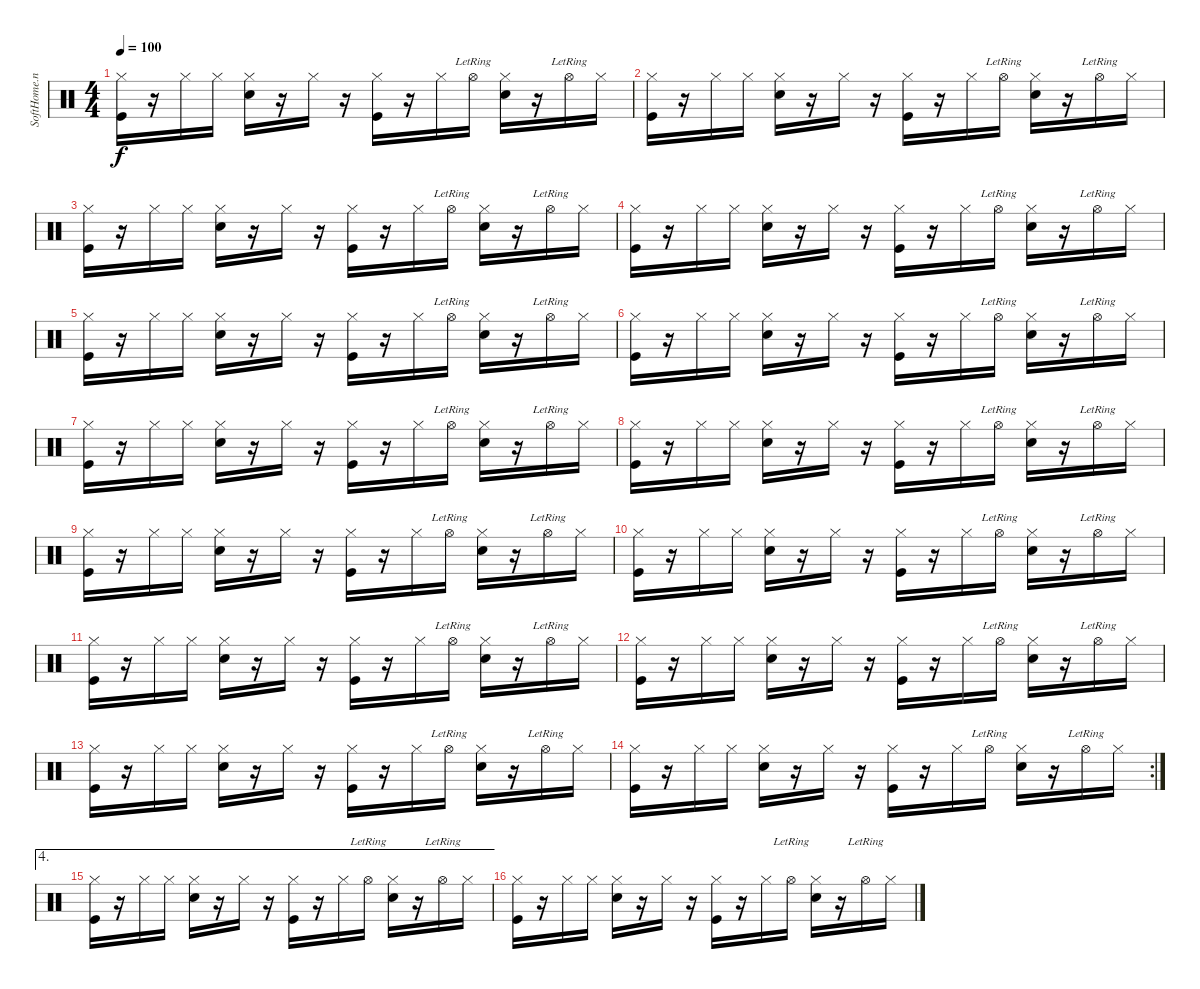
\track ("SoftHome.net" "SoftHome.n") {instrument percussion}
\staff {score}
\articulation defaults
\ts (4 4)
\tempo 100
\clef neutral
\ks c
("Hi-Hat (closed)" "Kick (hit)").16{dy f} r.16 "Hi-Hat (closed)".16 "Hi-Hat (closed)".16 ("Hi-Hat (closed)" "Snare (hit) 2").16 r.16 "Hi-Hat (closed)".16 r.16 ("Hi-Hat (closed)" "Kick (hit)").16 r.16 "Hi-Hat (closed)".16 "Hi-Hat (open)"{lr}.16 ("Hi-Hat (closed)" "Snare (hit) 2").16 r.16 "Hi-Hat (open)"{lr}.16 "Hi-Hat (closed)".16 |
("Hi-Hat (closed)" "Kick (hit)").16 r.16 "Hi-Hat (closed)".16 "Hi-Hat (closed)".16 ("Hi-Hat (closed)" "Snare (hit) 2").16 r.16 "Hi-Hat (closed)".16 r.16 ("Hi-Hat (closed)" "Kick (hit)").16 r.16 "Hi-Hat (closed)".16 "Hi-Hat (open)"{lr}.16 ("Hi-Hat (closed)" "Snare (hit) 2").16 r.16 "Hi-Hat (open)"{lr}.16 "Hi-Hat (closed)".16 |
("Hi-Hat (closed)" "Kick (hit)").16 r.16 "Hi-Hat (closed)".16 "Hi-Hat (closed)".16 ("Hi-Hat (closed)" "Snare (hit) 2").16 r.16 "Hi-Hat (closed)".16 r.16 ("Hi-Hat (closed)" "Kick (hit)").16 r.16 "Hi-Hat (closed)".16 "Hi-Hat (open)"{lr}.16 ("Hi-Hat (closed)" "Snare (hit) 2").16 r.16 "Hi-Hat (open)"{lr}.16 "Hi-Hat (closed)".16 |
("Hi-Hat (closed)" "Kick (hit)").16 r.16 "Hi-Hat (closed)".16 "Hi-Hat (closed)".16 ("Hi-Hat (closed)" "Snare (hit) 2").16 r.16 "Hi-Hat (closed)".16 r.16 ("Hi-Hat (closed)" "Kick (hit)").16 r.16 "Hi-Hat (closed)".16 "Hi-Hat (open)"{lr}.16 ("Hi-Hat (closed)" "Snare (hit) 2").16 r.16 "Hi-Hat (open)"{lr}.16 "Hi-Hat (closed)".16 |
("Hi-Hat (closed)" "Kick (hit)").16 r.16 "Hi-Hat (closed)".16 "Hi-Hat (closed)".16 ("Hi-Hat (closed)" "Snare (hit) 2").16 r.16 "Hi-Hat (closed)".16 r.16 ("Hi-Hat (closed)" "Kick (hit)").16 r.16 "Hi-Hat (closed)".16 "Hi-Hat (open)"{lr}.16 ("Hi-Hat (closed)" "Snare (hit) 2").16 r.16 "Hi-Hat (open)"{lr}.16 "Hi-Hat (closed)".16 |
("Hi-Hat (closed)" "Kick (hit)").16 r.16 "Hi-Hat (closed)".16 "Hi-Hat (closed)".16 ("Hi-Hat (closed)" "Snare (hit) 2").16 r.16 "Hi-Hat (closed)".16 r.16 ("Hi-Hat (closed)" "Kick (hit)").16 r.16 "Hi-Hat (closed)".16 "Hi-Hat (open)"{lr}.16 ("Hi-Hat (closed)" "Snare (hit) 2").16 r.16 "Hi-Hat (open)"{lr}.16 "Hi-Hat (closed)".16 |
("Hi-Hat (closed)" "Kick (hit)").16 r.16 "Hi-Hat (closed)".16 "Hi-Hat (closed)".16 ("Hi-Hat (closed)" "Snare (hit) 2").16 r.16 "Hi-Hat (closed)".16 r.16 ("Hi-Hat (closed)" "Kick (hit)").16 r.16 "Hi-Hat (closed)".16 "Hi-Hat (open)"{lr}.16 ("Hi-Hat (closed)" "Snare (hit) 2").16 r.16 "Hi-Hat (open)"{lr}.16 "Hi-Hat (closed)".16 |
("Hi-Hat (closed)" "Kick (hit)").16 r.16 "Hi-Hat (closed)".16 "Hi-Hat (closed)".16 ("Hi-Hat (closed)" "Snare (hit) 2").16 r.16 "Hi-Hat (closed)".16 r.16 ("Hi-Hat (closed)" "Kick (hit)").16 r.16 "Hi-Hat (closed)".16 "Hi-Hat (open)"{lr}.16 ("Hi-Hat (closed)" "Snare (hit) 2").16 r.16 "Hi-Hat (open)"{lr}.16 "Hi-Hat (closed)".16 |
("Hi-Hat (closed)" "Kick (hit)").16 r.16 "Hi-Hat (closed)".16 "Hi-Hat (closed)".16 ("Hi-Hat (closed)" "Snare (hit) 2").16 r.16 "Hi-Hat (closed)".16 r.16 ("Hi-Hat (closed)" "Kick (hit)").16 r.16 "Hi-Hat (closed)".16 "Hi-Hat (open)"{lr}.16 ("Hi-Hat (closed)" "Snare (hit) 2").16 r.16 "Hi-Hat (open)"{lr}.16 "Hi-Hat (closed)".16 |
("Hi-Hat (closed)" "Kick (hit)").16 r.16 "Hi-Hat (closed)".16 "Hi-Hat (closed)".16 ("Hi-Hat (closed)" "Snare (hit) 2").16 r.16 "Hi-Hat (closed)".16 r.16 ("Hi-Hat (closed)" "Kick (hit)").16 r.16 "Hi-Hat (closed)".16 "Hi-Hat (open)"{lr}.16 ("Hi-Hat (closed)" "Snare (hit) 2").16 r.16 "Hi-Hat (open)"{lr}.16 "Hi-Hat (closed)".16 |
("Hi-Hat (closed)" "Kick (hit)").16 r.16 "Hi-Hat (closed)".16 "Hi-Hat (closed)".16 ("Hi-Hat (closed)" "Snare (hit) 2").16 r.16 "Hi-Hat (closed)".16 r.16 ("Hi-Hat (closed)" "Kick (hit)").16 r.16 "Hi-Hat (closed)".16 "Hi-Hat (open)"{lr}.16 ("Hi-Hat (closed)" "Snare (hit) 2").16 r.16 "Hi-Hat (open)"{lr}.16 "Hi-Hat (closed)".16 |
("Hi-Hat (closed)" "Kick (hit)").16 r.16 "Hi-Hat (closed)".16 "Hi-Hat (closed)".16 ("Hi-Hat (closed)" "Snare (hit) 2").16 r.16 "Hi-Hat (closed)".16 r.16 ("Hi-Hat (closed)" "Kick (hit)").16 r.16 "Hi-Hat (closed)".16 "Hi-Hat (open)"{lr}.16 ("Hi-Hat (closed)" "Snare (hit) 2").16 r.16 "Hi-Hat (open)"{lr}.16 "Hi-Hat (closed)".16 |
("Hi-Hat (closed)" "Kick (hit)").16 r.16 "Hi-Hat (closed)".16 "Hi-Hat (closed)".16 ("Hi-Hat (closed)" "Snare (hit) 2").16 r.16 "Hi-Hat (closed)".16 r.16 ("Hi-Hat (closed)" "Kick (hit)").16 r.16 "Hi-Hat (closed)".16 "Hi-Hat (open)"{lr}.16 ("Hi-Hat (closed)" "Snare (hit) 2").16 r.16 "Hi-Hat (open)"{lr}.16 "Hi-Hat (closed)".16 |
\rc 2
("Hi-Hat (closed)" "Kick (hit)").16 r.16 "Hi-Hat (closed)".16 "Hi-Hat (closed)".16 ("Hi-Hat (closed)" "Snare (hit) 2").16 r.16 "Hi-Hat (closed)".16 r.16 ("Hi-Hat (closed)" "Kick (hit)").16 r.16 "Hi-Hat (closed)".16 "Hi-Hat (open)"{lr}.16 ("Hi-Hat (closed)" "Snare (hit) 2").16 r.16 "Hi-Hat (open)"{lr}.16 "Hi-Hat (closed)".16 |
\ae 4
("Hi-Hat (closed)" "Kick (hit)").16 r.16 "Hi-Hat (closed)".16 "Hi-Hat (closed)".16 ("Hi-Hat (closed)" "Snare (hit) 2").16 r.16 "Hi-Hat (closed)".16 r.16 ("Hi-Hat (closed)" "Kick (hit)").16 r.16 "Hi-Hat (closed)".16 "Hi-Hat (open)"{lr}.16 ("Hi-Hat (closed)" "Snare (hit) 2").16 r.16 "Hi-Hat (open)"{lr}.16 "Hi-Hat (closed)".16 |
("Hi-Hat (closed)" "Kick (hit)").16 r.16 "Hi-Hat (closed)".16 "Hi-Hat (closed)".16 ("Hi-Hat (closed)" "Snare (hit) 2").16 r.16 "Hi-Hat (closed)".16 r.16 ("Hi-Hat (closed)" "Kick (hit)").16 r.16 "Hi-Hat (closed)".16 "Hi-Hat (open)"{lr}.16 ("Hi-Hat (closed)" "Snare (hit) 2").16 r.16 "Hi-Hat (open)"{lr}.16 "Hi-Hat (closed)".16
